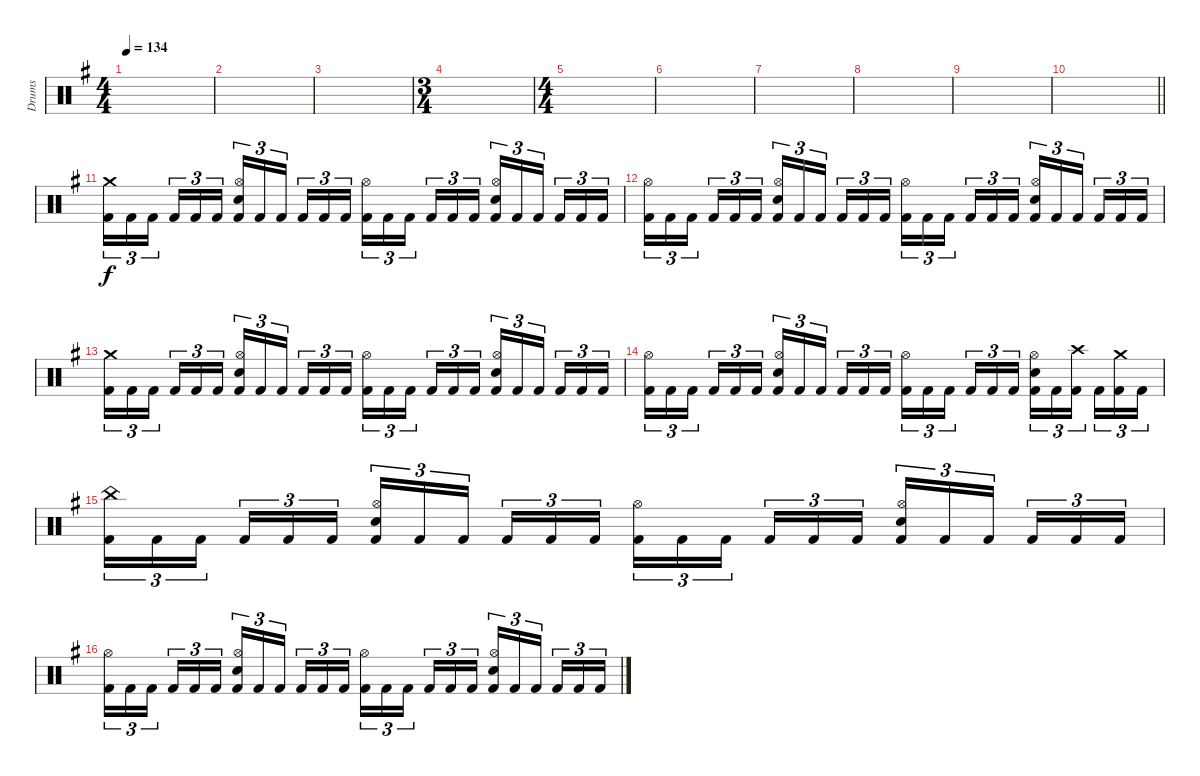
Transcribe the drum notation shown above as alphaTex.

\track ("Drums" "Drums") {instrument percussion}
\staff {score}
\articulation defaults
\ts (4 4)
\section ("" "")
\tempo 134
\clef neutral
\ks g
|
|
|
\ts (3 4)
|
\ts (4 4)
|
|
|
|
|
\barLineRight lightlight
|
\section ("" "")
("Crash medium (hit)" "Kick (hit) 2").16{tu (3 2)} "Kick (hit) 2".16{tu (3 2)} "Kick (hit) 2".16{tu (3 2) beam splitsecondary} "Kick (hit) 2".16{tu (3 2)} "Kick (hit) 2".16{tu (3 2)} "Kick (hit) 2".16{tu (3 2)} ("Hi-Hat (open)" "Electric Snare (hit)" "Kick (hit) 2").16{tu (3 2)} "Kick (hit) 2".16{tu (3 2)} "Kick (hit) 2".16{tu (3 2) beam splitsecondary} "Kick (hit) 2".16{tu (3 2)} "Kick (hit) 2".16{tu (3 2)} "Kick (hit) 2".16{tu (3 2)} ("Hi-Hat (open)" "Kick (hit) 2").16{tu (3 2)} "Kick (hit) 2".16{tu (3 2)} "Kick (hit) 2".16{tu (3 2) beam splitsecondary} "Kick (hit) 2".16{tu (3 2)} "Kick (hit) 2".16{tu (3 2)} "Kick (hit) 2".16{tu (3 2)} ("Hi-Hat (open)" "Electric Snare (hit)" "Kick (hit) 2").16{tu (3 2)} "Kick (hit) 2".16{tu (3 2)} "Kick (hit) 2".16{tu (3 2) beam splitsecondary} "Kick (hit) 2".16{tu (3 2)} "Kick (hit) 2".16{tu (3 2)} "Kick (hit) 2".16{tu (3 2)} |
("Hi-Hat (open)" "Kick (hit) 2").16{tu (3 2)} "Kick (hit) 2".16{tu (3 2)} "Kick (hit) 2".16{tu (3 2) beam splitsecondary} "Kick (hit) 2".16{tu (3 2)} "Kick (hit) 2".16{tu (3 2)} "Kick (hit) 2".16{tu (3 2)} ("Hi-Hat (open)" "Electric Snare (hit)" "Kick (hit) 2").16{tu (3 2)} "Kick (hit) 2".16{tu (3 2)} "Kick (hit) 2".16{tu (3 2) beam splitsecondary} "Kick (hit) 2".16{tu (3 2)} "Kick (hit) 2".16{tu (3 2)} "Kick (hit) 2".16{tu (3 2)} ("Hi-Hat (open)" "Kick (hit) 2").16{tu (3 2)} "Kick (hit) 2".16{tu (3 2)} "Kick (hit) 2".16{tu (3 2) beam splitsecondary} "Kick (hit) 2".16{tu (3 2)} "Kick (hit) 2".16{tu (3 2)} "Kick (hit) 2".16{tu (3 2)} ("Hi-Hat (open)" "Electric Snare (hit)" "Kick (hit) 2").16{tu (3 2)} "Kick (hit) 2".16{tu (3 2)} "Kick (hit) 2".16{tu (3 2) beam splitsecondary} "Kick (hit) 2".16{tu (3 2)} "Kick (hit) 2".16{tu (3 2)} "Kick (hit) 2".16{tu (3 2)} |
("Crash medium (hit)" "Kick (hit) 2").16{tu (3 2)} "Kick (hit) 2".16{tu (3 2)} "Kick (hit) 2".16{tu (3 2) beam splitsecondary} "Kick (hit) 2".16{tu (3 2)} "Kick (hit) 2".16{tu (3 2)} "Kick (hit) 2".16{tu (3 2)} ("Hi-Hat (open)" "Electric Snare (hit)" "Kick (hit) 2").16{tu (3 2)} "Kick (hit) 2".16{tu (3 2)} "Kick (hit) 2".16{tu (3 2) beam splitsecondary} "Kick (hit) 2".16{tu (3 2)} "Kick (hit) 2".16{tu (3 2)} "Kick (hit) 2".16{tu (3 2)} ("Hi-Hat (open)" "Kick (hit) 2").16{tu (3 2)} "Kick (hit) 2".16{tu (3 2)} "Kick (hit) 2".16{tu (3 2) beam splitsecondary} "Kick (hit) 2".16{tu (3 2)} "Kick (hit) 2".16{tu (3 2)} "Kick (hit) 2".16{tu (3 2)} ("Hi-Hat (open)" "Electric Snare (hit)" "Kick (hit) 2").16{tu (3 2)} "Kick (hit) 2".16{tu (3 2)} "Kick (hit) 2".16{tu (3 2) beam splitsecondary} "Kick (hit) 2".16{tu (3 2)} "Kick (hit) 2".16{tu (3 2)} "Kick (hit) 2".16{tu (3 2)} |
("Hi-Hat (open)" "Kick (hit) 2").16{tu (3 2)} "Kick (hit) 2".16{tu (3 2)} "Kick (hit) 2".16{tu (3 2) beam splitsecondary} "Kick (hit) 2".16{tu (3 2)} "Kick (hit) 2".16{tu (3 2)} "Kick (hit) 2".16{tu (3 2)} ("Hi-Hat (open)" "Electric Snare (hit)" "Kick (hit) 2").16{tu (3 2)} "Kick (hit) 2".16{tu (3 2)} "Kick (hit) 2".16{tu (3 2) beam splitsecondary} "Kick (hit) 2".16{tu (3 2)} "Kick (hit) 2".16{tu (3 2)} "Kick (hit) 2".16{tu (3 2)} ("Hi-Hat (open)" "Kick (hit) 2").16{tu (3 2)} "Kick (hit) 2".16{tu (3 2)} "Kick (hit) 2".16{tu (3 2) beam splitsecondary} "Kick (hit) 2".16{tu (3 2)} "Kick (hit) 2".16{tu (3 2)} "Kick (hit) 2".16{tu (3 2)} ("Hi-Hat (open)" "Electric Snare (hit)" "Kick (hit) 2").16{tu (3 2)} "Kick (hit) 2".16{tu (3 2)} ("Crash high (hit)" "Kick (hit) 2").16{tu (3 2) beam splitsecondary} "Kick (hit) 2".16{tu (3 2)} ("Crash medium (hit)" "Kick (hit) 2").16{tu (3 2)} "Kick (hit) 2".16{tu (3 2)} |
("China (hit)" "Kick (hit) 2").16{tu (3 2)} "Kick (hit) 2".16{tu (3 2)} "Kick (hit) 2".16{tu (3 2) beam splitsecondary} "Kick (hit) 2".16{tu (3 2)} "Kick (hit) 2".16{tu (3 2)} "Kick (hit) 2".16{tu (3 2)} ("Hi-Hat (open)" "Electric Snare (hit)" "Kick (hit) 2").16{tu (3 2)} "Kick (hit) 2".16{tu (3 2)} "Kick (hit) 2".16{tu (3 2) beam splitsecondary} "Kick (hit) 2".16{tu (3 2)} "Kick (hit) 2".16{tu (3 2)} "Kick (hit) 2".16{tu (3 2)} ("Hi-Hat (open)" "Kick (hit) 2").16{tu (3 2)} "Kick (hit) 2".16{tu (3 2)} "Kick (hit) 2".16{tu (3 2) beam splitsecondary} "Kick (hit) 2".16{tu (3 2)} "Kick (hit) 2".16{tu (3 2)} "Kick (hit) 2".16{tu (3 2)} ("Hi-Hat (open)" "Electric Snare (hit)" "Kick (hit) 2").16{tu (3 2)} "Kick (hit) 2".16{tu (3 2)} "Kick (hit) 2".16{tu (3 2) beam splitsecondary} "Kick (hit) 2".16{tu (3 2)} "Kick (hit) 2".16{tu (3 2)} "Kick (hit) 2".16{tu (3 2)} |
("Hi-Hat (open)" "Kick (hit) 2").16{tu (3 2)} "Kick (hit) 2".16{tu (3 2)} "Kick (hit) 2".16{tu (3 2) beam splitsecondary} "Kick (hit) 2".16{tu (3 2)} "Kick (hit) 2".16{tu (3 2)} "Kick (hit) 2".16{tu (3 2)} ("Hi-Hat (open)" "Electric Snare (hit)" "Kick (hit) 2").16{tu (3 2)} "Kick (hit) 2".16{tu (3 2)} "Kick (hit) 2".16{tu (3 2) beam splitsecondary} "Kick (hit) 2".16{tu (3 2)} "Kick (hit) 2".16{tu (3 2)} "Kick (hit) 2".16{tu (3 2)} ("Hi-Hat (open)" "Kick (hit) 2").16{tu (3 2)} "Kick (hit) 2".16{tu (3 2)} "Kick (hit) 2".16{tu (3 2) beam splitsecondary} "Kick (hit) 2".16{tu (3 2)} "Kick (hit) 2".16{tu (3 2)} "Kick (hit) 2".16{tu (3 2)} ("Hi-Hat (open)" "Electric Snare (hit)" "Kick (hit) 2").16{tu (3 2)} "Kick (hit) 2".16{tu (3 2)} "Kick (hit) 2".16{tu (3 2) beam splitsecondary} "Kick (hit) 2".16{tu (3 2)} "Kick (hit) 2".16{tu (3 2)} "Kick (hit) 2".16{tu (3 2)}
